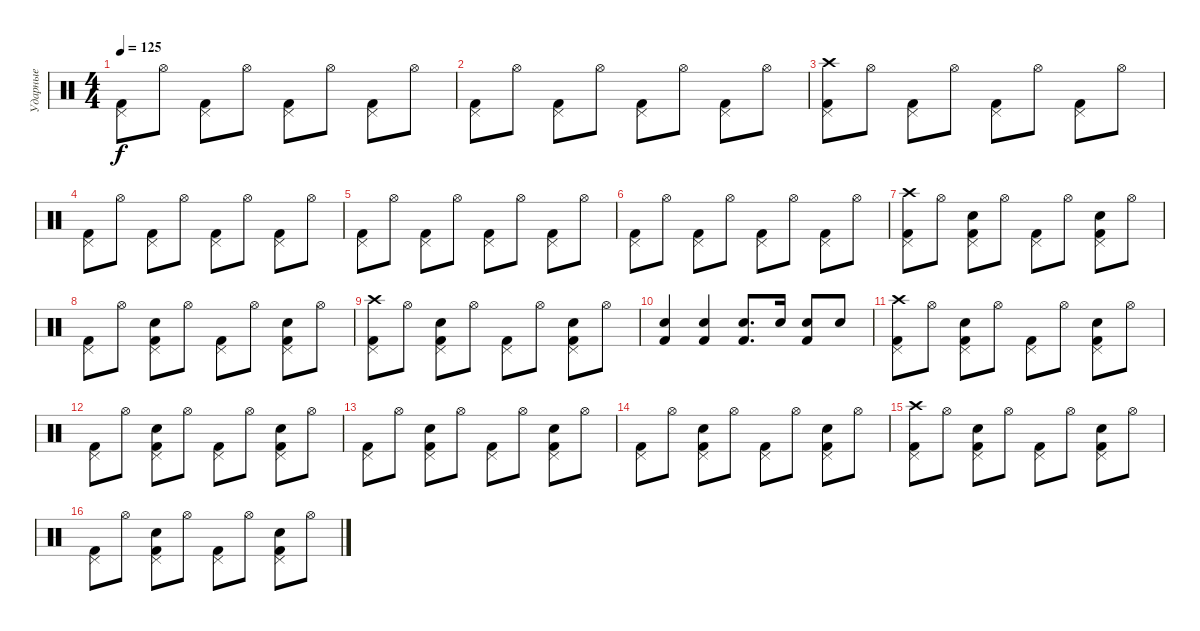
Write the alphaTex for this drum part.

\track ("Ударные" "Ударные") {instrument percussion}
\staff {score}
\articulation defaults
\ts (4 4)
\tempo 125
\clef neutral
\ks c
("Kick (hit) 2" "Pedal Hi-Hat (hit)").8{dy f} "Hi-Hat (open)".8 ("Kick (hit) 2" "Pedal Hi-Hat (hit)").8 "Hi-Hat (open)".8 ("Kick (hit) 2" "Pedal Hi-Hat (hit)").8 "Hi-Hat (open)".8 ("Kick (hit) 2" "Pedal Hi-Hat (hit)").8 "Hi-Hat (open)".8 |
("Kick (hit) 2" "Pedal Hi-Hat (hit)").8 "Hi-Hat (open)".8 ("Kick (hit) 2" "Pedal Hi-Hat (hit)").8 "Hi-Hat (open)".8 ("Kick (hit) 2" "Pedal Hi-Hat (hit)").8 "Hi-Hat (open)".8 ("Kick (hit) 2" "Pedal Hi-Hat (hit)").8 "Hi-Hat (open)".8 |
("Kick (hit) 2" "Pedal Hi-Hat (hit)" "Crash high (hit)").8 "Hi-Hat (open)".8 ("Kick (hit) 2" "Pedal Hi-Hat (hit)").8 "Hi-Hat (open)".8 ("Kick (hit) 2" "Pedal Hi-Hat (hit)").8 "Hi-Hat (open)".8 ("Kick (hit) 2" "Pedal Hi-Hat (hit)").8 "Hi-Hat (open)".8 |
("Kick (hit) 2" "Pedal Hi-Hat (hit)").8 "Hi-Hat (open)".8 ("Kick (hit) 2" "Pedal Hi-Hat (hit)").8 "Hi-Hat (open)".8 ("Kick (hit) 2" "Pedal Hi-Hat (hit)").8 "Hi-Hat (open)".8 ("Kick (hit) 2" "Pedal Hi-Hat (hit)").8 "Hi-Hat (open)".8 |
("Kick (hit) 2" "Pedal Hi-Hat (hit)").8 "Hi-Hat (open)".8 ("Kick (hit) 2" "Pedal Hi-Hat (hit)").8 "Hi-Hat (open)".8 ("Kick (hit) 2" "Pedal Hi-Hat (hit)").8 "Hi-Hat (open)".8 ("Kick (hit) 2" "Pedal Hi-Hat (hit)").8 "Hi-Hat (open)".8 |
("Kick (hit) 2" "Pedal Hi-Hat (hit)").8 "Hi-Hat (open)".8 ("Kick (hit) 2" "Pedal Hi-Hat (hit)").8 "Hi-Hat (open)".8 ("Kick (hit) 2" "Pedal Hi-Hat (hit)").8 "Hi-Hat (open)".8 ("Kick (hit) 2" "Pedal Hi-Hat (hit)").8 "Hi-Hat (open)".8 |
("Kick (hit) 2" "Pedal Hi-Hat (hit)" "Crash high (hit)").8 "Hi-Hat (open)".8 ("Kick (hit) 2" "Pedal Hi-Hat (hit)" "Hand Clap (hit)").8 "Hi-Hat (open)".8 ("Kick (hit) 2" "Pedal Hi-Hat (hit)").8 "Hi-Hat (open)".8 ("Kick (hit) 2" "Pedal Hi-Hat (hit)" "Hand Clap (hit)").8 "Hi-Hat (open)".8 |
("Kick (hit) 2" "Pedal Hi-Hat (hit)").8 "Hi-Hat (open)".8 ("Kick (hit) 2" "Pedal Hi-Hat (hit)" "Hand Clap (hit)").8 "Hi-Hat (open)".8 ("Kick (hit) 2" "Pedal Hi-Hat (hit)").8 "Hi-Hat (open)".8 ("Kick (hit) 2" "Pedal Hi-Hat (hit)" "Hand Clap (hit)").8 "Hi-Hat (open)".8 |
("Kick (hit) 2" "Pedal Hi-Hat (hit)" "Crash high (hit)").8 "Hi-Hat (open)".8 ("Kick (hit) 2" "Pedal Hi-Hat (hit)" "Hand Clap (hit)").8 "Hi-Hat (open)".8 ("Kick (hit) 2" "Pedal Hi-Hat (hit)").8 "Hi-Hat (open)".8 ("Kick (hit) 2" "Pedal Hi-Hat (hit)" "Hand Clap (hit)").8 "Hi-Hat (open)".8 |
("Kick (hit) 2" "Snare (hit) 2").4 ("Kick (hit) 2" "Snare (hit) 2").4 ("Kick (hit) 2" "Snare (hit) 2").8{d} "Snare (hit) 2".16 ("Kick (hit) 2" "Snare (hit) 2").8 "Snare (hit) 2".8 |
("Kick (hit) 2" "Pedal Hi-Hat (hit)" "Crash high (hit)").8 "Hi-Hat (open)".8 ("Kick (hit) 2" "Pedal Hi-Hat (hit)" "Hand Clap (hit)").8 "Hi-Hat (open)".8 ("Kick (hit) 2" "Pedal Hi-Hat (hit)").8 "Hi-Hat (open)".8 ("Kick (hit) 2" "Pedal Hi-Hat (hit)" "Hand Clap (hit)").8 "Hi-Hat (open)".8 |
("Kick (hit) 2" "Pedal Hi-Hat (hit)").8 "Hi-Hat (open)".8 ("Kick (hit) 2" "Pedal Hi-Hat (hit)" "Hand Clap (hit)").8 "Hi-Hat (open)".8 ("Kick (hit) 2" "Pedal Hi-Hat (hit)").8 "Hi-Hat (open)".8 ("Kick (hit) 2" "Pedal Hi-Hat (hit)" "Hand Clap (hit)").8 "Hi-Hat (open)".8 |
("Kick (hit) 2" "Pedal Hi-Hat (hit)").8 "Hi-Hat (open)".8 ("Kick (hit) 2" "Pedal Hi-Hat (hit)" "Hand Clap (hit)").8 "Hi-Hat (open)".8 ("Kick (hit) 2" "Pedal Hi-Hat (hit)").8 "Hi-Hat (open)".8 ("Kick (hit) 2" "Pedal Hi-Hat (hit)" "Hand Clap (hit)").8 "Hi-Hat (open)".8 |
("Kick (hit) 2" "Pedal Hi-Hat (hit)").8 "Hi-Hat (open)".8 ("Kick (hit) 2" "Pedal Hi-Hat (hit)" "Hand Clap (hit)").8 "Hi-Hat (open)".8 ("Kick (hit) 2" "Pedal Hi-Hat (hit)").8 "Hi-Hat (open)".8 ("Kick (hit) 2" "Pedal Hi-Hat (hit)" "Hand Clap (hit)").8 "Hi-Hat (open)".8 |
("Kick (hit) 2" "Pedal Hi-Hat (hit)" "Crash high (hit)").8 "Hi-Hat (open)".8 ("Kick (hit) 2" "Pedal Hi-Hat (hit)" "Hand Clap (hit)").8 "Hi-Hat (open)".8 ("Kick (hit) 2" "Pedal Hi-Hat (hit)").8 "Hi-Hat (open)".8 ("Kick (hit) 2" "Pedal Hi-Hat (hit)" "Hand Clap (hit)").8 "Hi-Hat (open)".8 |
("Kick (hit) 2" "Pedal Hi-Hat (hit)").8 "Hi-Hat (open)".8 ("Kick (hit) 2" "Pedal Hi-Hat (hit)" "Hand Clap (hit)").8 "Hi-Hat (open)".8 ("Kick (hit) 2" "Pedal Hi-Hat (hit)").8 "Hi-Hat (open)".8 ("Kick (hit) 2" "Pedal Hi-Hat (hit)" "Hand Clap (hit)").8 "Hi-Hat (open)".8
